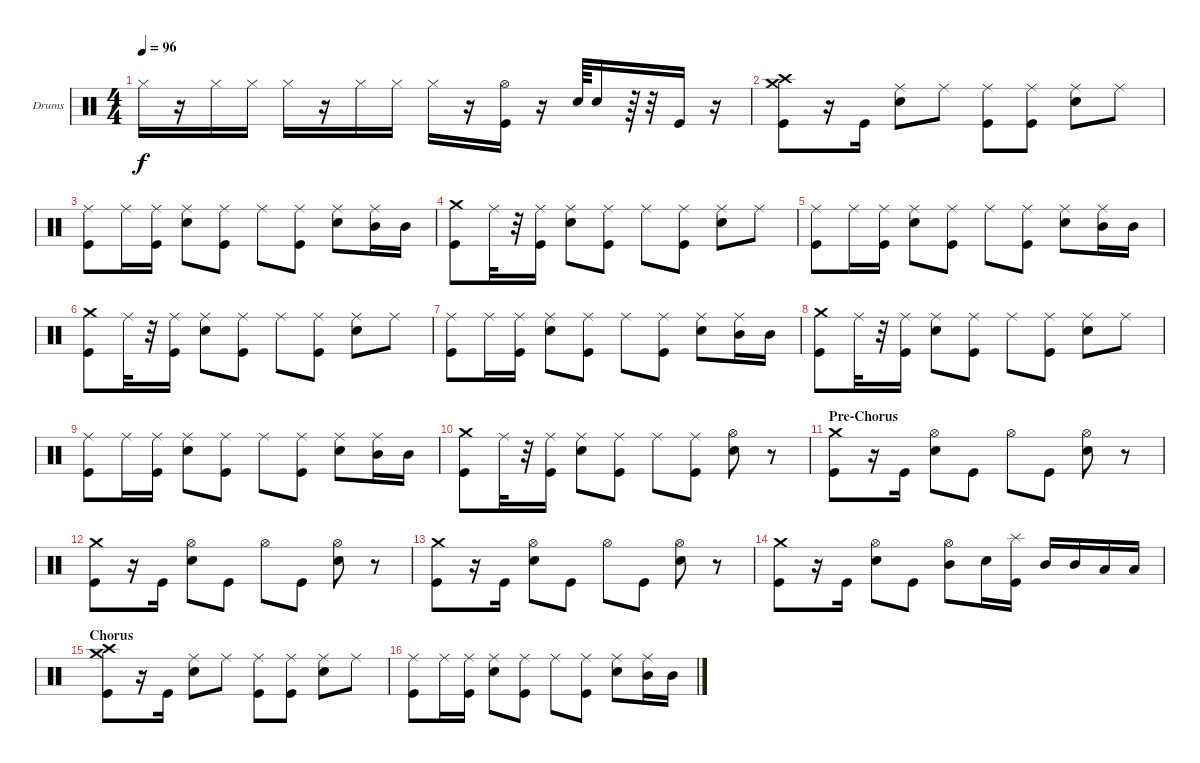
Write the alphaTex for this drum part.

\defaultSystemsLayout 4
\bracketExtendMode nobrackets
\firstSystemTrackNameOrientation horizontal
\otherSystemsTrackNameOrientation horizontal
\track ("Dave Abbruzzese" "Drums") {solo instrument percussion}
\staff {score}
\articulation defaults
\ts (4 4)
\tempo 96
\clef neutral
\ks c "Hi-Hat (closed)".16{dy f}
r.16 "Hi-Hat (closed)".16 "Hi-Hat (closed)".16 "Hi-Hat (closed)".16 r.16 "Hi-Hat (closed)".16 "Hi-Hat (closed)".16 "Hi-Hat (closed)".16 r.16 ("Kick (hit)" "Hi-Hat (open)").16 r.16 "Snare (hit) 2".64 "Snare (hit) 2".16 r.64 r.32 "Kick (hit)".16 r.16 |
("Crash high (hit)" "Crash medium (hit)" "Kick (hit)").8 r.16 "Kick (hit)".16 ("Ride (middle)" "Snare (hit) 2").8 "Ride (middle)".8 ("Ride (middle)" "Kick (hit)").8 ("Ride (middle)" "Kick (hit)").8 ("Ride (middle)" "Snare (hit) 2").8 "Ride (middle)".8 |
("Ride (middle)" "Kick (hit)").8 "Ride (middle)".16 ("Ride (middle)" "Kick (hit)").16 ("Ride (middle)" "Snare (hit) 2").8 ("Ride (middle)" "Kick (hit)").8 "Ride (middle)".8 ("Ride (middle)" "Kick (hit)").8 ("Ride (middle)" "Snare (hit) 2").8 ("Ride (middle)" "Mid Tom (hit)").16 "Mid Tom (hit)".16 |
("Crash medium (hit)" "Kick (hit)").8 "Ride (middle)".32 r.32 ("Ride (middle)" "Kick (hit)").16 ("Ride (middle)" "Snare (hit) 2").8 ("Ride (middle)" "Kick (hit)").8 "Ride (middle)".8 ("Ride (middle)" "Kick (hit)").8 ("Ride (middle)" "Snare (hit) 2").8 "Ride (middle)".8 |
("Ride (middle)" "Kick (hit)").8 "Ride (middle)".16 ("Ride (middle)" "Kick (hit)").16 ("Ride (middle)" "Snare (hit) 2").8 ("Ride (middle)" "Kick (hit)").8 "Ride (middle)".8 ("Ride (middle)" "Kick (hit)").8 ("Ride (middle)" "Snare (hit) 2").8 ("Ride (middle)" "Mid Tom (hit)").16 "Mid Tom (hit)".16 |
("Crash medium (hit)" "Kick (hit)").8 "Ride (middle)".32 r.32 ("Ride (middle)" "Kick (hit)").16 ("Ride (middle)" "Snare (hit) 2").8 ("Ride (middle)" "Kick (hit)").8 "Ride (middle)".8 ("Ride (middle)" "Kick (hit)").8 ("Ride (middle)" "Snare (hit) 2").8 "Ride (middle)".8 |
("Ride (middle)" "Kick (hit)").8 "Ride (middle)".16 ("Ride (middle)" "Kick (hit)").16 ("Ride (middle)" "Snare (hit) 2").8 ("Ride (middle)" "Kick (hit)").8 "Ride (middle)".8 ("Ride (middle)" "Kick (hit)").8 ("Ride (middle)" "Snare (hit) 2").8 ("Ride (middle)" "Mid Tom (hit)").16 "Mid Tom (hit)".16 |
("Crash medium (hit)" "Kick (hit)").8 "Ride (middle)".32 r.32 ("Ride (middle)" "Kick (hit)").16 ("Ride (middle)" "Snare (hit) 2").8 ("Ride (middle)" "Kick (hit)").8 "Ride (middle)".8 ("Ride (middle)" "Kick (hit)").8 ("Ride (middle)" "Snare (hit) 2").8 "Ride (middle)".8 |
("Ride (middle)" "Kick (hit)").8 "Ride (middle)".16 ("Ride (middle)" "Kick (hit)").16 ("Ride (middle)" "Snare (hit) 2").8 ("Ride (middle)" "Kick (hit)").8 "Ride (middle)".8 ("Ride (middle)" "Kick (hit)").8 ("Ride (middle)" "Snare (hit) 2").8 ("Ride (middle)" "Mid Tom (hit)").16 "Mid Tom (hit)".16 |
("Crash medium (hit)" "Kick (hit)").8 "Ride (middle)".32 r.32 ("Ride (middle)" "Kick (hit)").16 ("Ride (middle)" "Snare (hit) 2").8 ("Ride (middle)" "Kick (hit)").8 "Ride (middle)".8 ("Ride (middle)" "Kick (hit)").8 ("Hi-Hat (open)" "Snare (hit) 2").8 r.8 |
\section ("" "Pre-Chorus")
("Crash medium (hit)" "Kick (hit)").8 r.16 "Kick (hit)".16 ("Hi-Hat (open)" "Snare (hit) 2").8 "Kick (hit)".8 "Hi-Hat (open)".8 "Kick (hit)".8 ("Hi-Hat (open)" "Snare (hit) 2").8 r.8 |
("Crash medium (hit)" "Kick (hit)").8 r.16 "Kick (hit)".16 ("Hi-Hat (open)" "Snare (hit) 2").8 "Kick (hit)".8 "Hi-Hat (open)".8 "Kick (hit)".8 ("Hi-Hat (open)" "Snare (hit) 2").8 r.8 |
("Crash medium (hit)" "Kick (hit)").8 r.16 "Kick (hit)".16 ("Hi-Hat (open)" "Snare (hit) 2").8 "Kick (hit)".8 "Hi-Hat (open)".8 "Kick (hit)".8 ("Hi-Hat (open)" "Snare (hit) 2").8 r.8 |
("Crash medium (hit)" "Kick (hit)").8 r.16 "Kick (hit)".16 ("Hi-Hat (open)" "Snare (hit) 2").8 "Kick (hit)".8 ("Hi-Hat (open)" "Mid Tom (hit)").8 "Snare (hit) 2".16 ("Splash (hit)" "Kick (hit)").16 "Mid Tom (hit)".16 "Mid Tom (hit)".16 "Low Tom (hit)".16 "Low Tom (hit)".16 |
\section ("" "Chorus")
("Crash high (hit)" "Crash medium (hit)" "Kick (hit)").8 r.16 "Kick (hit)".16 ("Ride (middle)" "Snare (hit) 2").8 "Ride (middle)".8 ("Ride (middle)" "Kick (hit)").8 ("Ride (middle)" "Kick (hit)").8 ("Ride (middle)" "Snare (hit) 2").8 "Ride (middle)".8 |
("Ride (middle)" "Kick (hit)").8 "Ride (middle)".16 ("Ride (middle)" "Kick (hit)").16 ("Ride (middle)" "Snare (hit) 2").8 ("Ride (middle)" "Kick (hit)").8 "Ride (middle)".8 ("Ride (middle)" "Kick (hit)").8 ("Ride (middle)" "Snare (hit) 2").8 ("Ride (middle)" "Mid Tom (hit)").16 "Mid Tom (hit)".16
